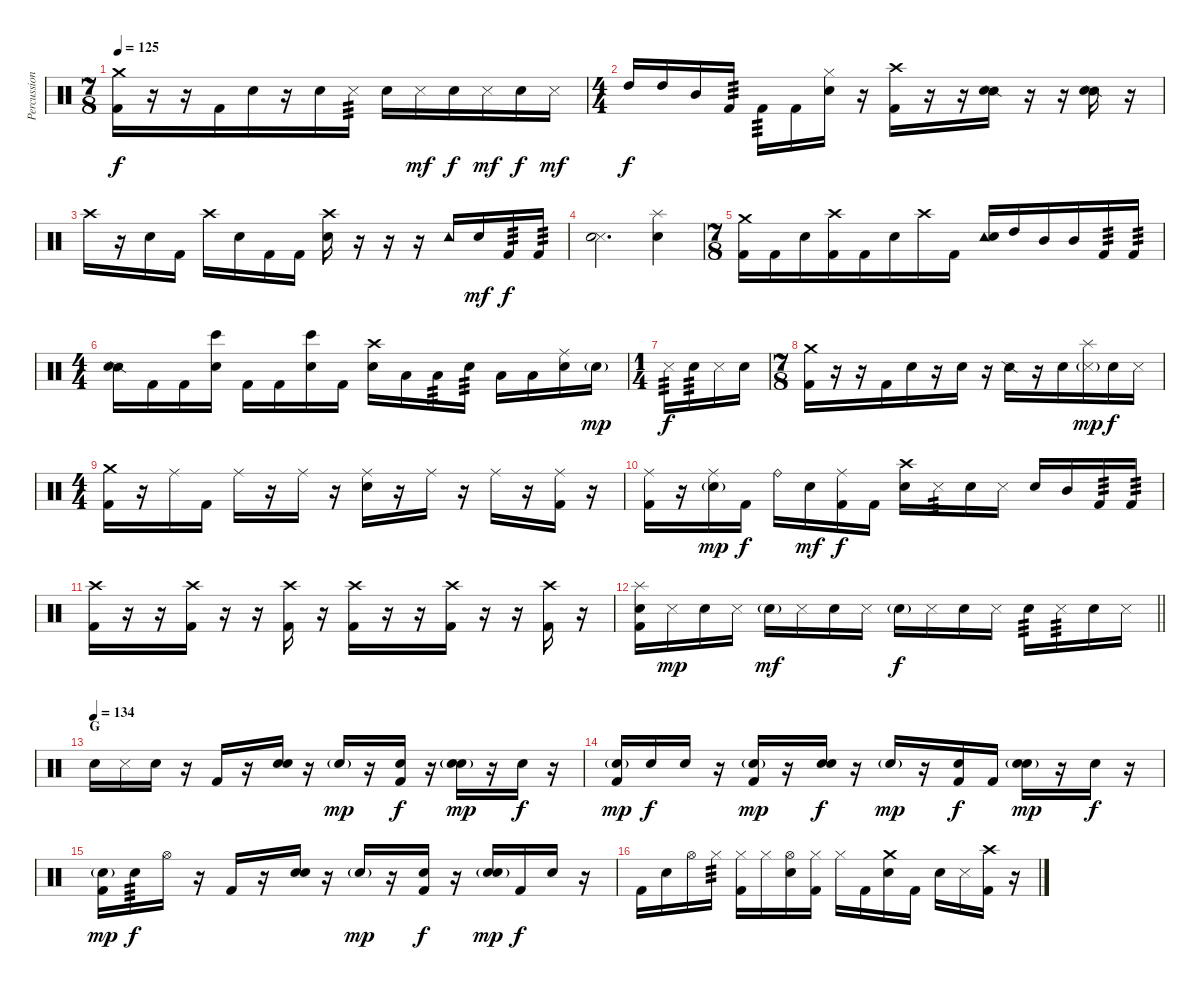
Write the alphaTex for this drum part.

\track ("Percussion" "Percussion") {instrument percussion}
\staff {score}
\articulation defaults
\ts (7 8)
\tempo 125
\clef neutral
\ks c
("Crash medium (hit)" "Kick (hit) 2").16{dy f} r.16 r.16 "Kick (hit) 2".16 "Snare (hit)".16 r.16 "Snare (hit) 2".16 "Metronome (hit)".16{tp 3} "Snare (hit) 2".16 "Metronome (hit)".16{dy mf} "Snare (hit) 2".16{dy f} "Metronome (hit)".16{dy mf} "Snare (hit) 2".16{dy f} "Metronome (hit)".16{dy mf} |
\ts (4 4)
"High Tom (hit)".16{dy f} "High Tom (hit)".16 "Mid Tom (hit)".16 "Kick (hit) 2".16{tp 3} "Kick (hit) 2".16{tp 3} "Kick (hit) 2".16 ("Hi-Hat (closed)" "Snare (hit) 2").16 r.16 ("Crash high (hit)" "Kick (hit) 2").16 r.16 r.16 ("Snare (side stick) 2" "Snare (hit) 2").16 r.16 r.16 ("Snare (side stick) 2" "Snare (hit) 2").16 r.16 |
"Crash high (hit)".16 r.16 "Snare (hit) 2".16 "Kick (hit) 2".16 "Crash high (hit)".16 "Snare (hit) 2".16 "Kick (hit) 2".16 "Kick (hit) 2".16 ("Crash high (hit)" "Snare (hit) 2").16 r.16 r.16 r.16 "Tambourine (hit)".16 "Snare (hit) 2".16{dy mf} "Kick (hit) 2".16{tp 3 dy f} "Kick (hit) 2".16{tp 3} |
("Metronome (hit)" "Snare (hit) 2").2{d bu 60} ("Splash (hit)" "Snare (hit) 2").4 |
\ts (7 8)
("Crash medium (hit)" "Kick (hit) 2").16 "Kick (hit) 2".16 "Snare (hit) 2".16 ("Crash high (hit)" "Kick (hit) 2").16 "Kick (hit) 2".16 "Snare (hit) 2".16 "Crash high (hit)".16 "Kick (hit) 2".16 ("Tambourine (hit)" "Snare (hit) 2").16 "High Tom (hit)".16 "Mid Tom (hit)".16 "Mid Tom (hit)".16 "Kick (hit) 2".16{tp 3} "Kick (hit) 2".16{tp 3} |
\ts (4 4)
("Snare (side stick) 2" "Snare (hit) 2").16 "Kick (hit) 2".16 "Kick (hit) 2".16 ("Bongo High (hit)" "Snare (hit) 2").16 "Kick (hit) 2".16 "Kick (hit) 2".16 ("Bongo High (hit)" "Snare (hit) 2").16 "Kick (hit) 2".16 ("Crash high (hit)" "Snare (hit) 2").16 "Low Tom (hit)".16 "Low Tom (hit)".16{tp 3} "Snare (hit) 2".16{tp 3} "Low Floor Tom (hit)".16 "Low Floor Tom (hit)".16 ("Ride (middle)" "Snare (hit) 2").16 "Snare (hit) 2"{g}.16{dy mp} |
\ts (1 4)
"Metronome (hit)".16{tp 3 dy f} "Snare (hit) 2".16{tp 3} "Metronome (hit)".16 "Snare (hit) 2".16 |
\ts (7 8)
("Crash medium (hit)" "Kick (hit) 2").16 r.16 r.16 "Kick (hit) 2".16 "Snare (hit)".16 r.16 "Snare (hit) 2".16 r.16 "Snare (side stick) 2".16 r.16 "Snare (hit) 2".16 ("Splash (hit)" "Metronome (hit)"{g}).16{dy mp} "Snare (hit) 2".16{dy f} "Metronome (hit)".16 |
\ts (4 4)
("Crash medium (hit)" "Kick (hit) 2").16 r.16 "Ride (middle)".16 "Kick (hit) 2".16 "Ride (middle)".16 r.16 "Ride (middle)".16 r.16 ("Ride (middle)" "Snare (hit) 2").16 r.16 "Ride (middle)".16 r.16 "Ride (middle)".16 r.16 ("Ride (middle)" "Kick (hit) 2").16 r.16 |
("Ride (middle)" "Kick (hit) 2").16 r.16 ("Ride (middle)" "Snare (hit) 2"{g}).16{dy mp} "Kick (hit) 2".16{dy f} "Ride (bell)".16 "Snare (hit) 2".16{dy mf} ("Ride (middle)" "Kick (hit) 2").16{dy f} "Kick (hit) 2".16 ("Crash high (hit)" "Snare (hit) 2").16 "Metronome (hit)".16{tp 3} "Snare (hit) 2".16 "Metronome (hit)".16 "Snare (hit) 2".16 "Mid Tom (hit)".16 "Kick (hit) 2".16{tp 3} "Kick (hit) 2".16{tp 3} |
("Crash high (hit)" "Kick (hit) 2").16 r.16 r.16 ("Crash high (hit)" "Kick (hit) 2").16 r.16 r.16 ("Crash high (hit)" "Kick (hit) 2").16 r.16 ("Crash high (hit)" "Kick (hit) 2").16 r.16 r.16 ("Crash high (hit)" "Kick (hit) 2").16 r.16 r.16 ("Crash high (hit)" "Kick (hit) 2").16 r.16 |
\barLineRight lightlight
("Splash (hit)" "Snare (hit) 2" "Kick (hit) 2").16 "Metronome (hit)".16{dy mp} "Snare (hit) 2".16 "Metronome (hit)".16 "Snare (hit) 2"{g}.16{dy mf} "Metronome (hit)".16 "Snare (hit) 2".16 "Metronome (hit)".16 "Snare (hit) 2"{g}.16{dy f} "Metronome (hit)".16 "Snare (hit) 2".16 "Metronome (hit)".16 "Snare (hit) 2".16{tp 3} "Metronome (hit)".16{tp 3} "Snare (hit) 2".16 "Metronome (hit)".16 |
\section ("" "G")
\tempo (134)
"Snare (hit) 2".16 "Metronome (hit)".16 "Snare (hit)".16 r.16 "Kick (hit) 2".16 r.16 ("Snare (hit)" "Snare (hit) 2").16 r.16 "Snare (hit)"{g}.16{dy mp} r.16 ("Snare (hit)" "Kick (hit) 2").16{dy f} r.16 ("Snare (hit)"{g} "Snare (hit) 2").16{dy mp} r.16 "Snare (hit)".16{dy f} r.16 |
("Snare (hit)"{g} "Kick (hit) 2").16{dy mp} "Snare (hit) 2".16{dy f} "Snare (hit)".16 r.16 ("Snare (hit)"{g} "Kick (hit) 2").16{dy mp} r.16 ("Snare (hit)" "Snare (hit) 2").16{dy f} r.16 "Snare (hit)"{g}.16{dy mp} r.16 ("Snare (hit)" "Kick (hit) 2").16{dy f} "Kick (hit) 2".16 ("Snare (hit)"{g} "Snare (hit) 2").16{dy mp} r.16 "Snare (hit)".16{dy f} r.16 |
("Snare (hit)"{g} "Kick (hit) 2").16{dy mp} "Snare (hit) 2".16{tp 3 dy f} "Hi-Hat (open)".16 r.16 "Kick (hit) 2".16 r.16 ("Snare (hit)" "Snare (hit) 2").16 r.16 "Snare (hit)"{g}.16{dy mp} r.16 ("Snare (hit)" "Kick (hit) 2").16{dy f} r.16 ("Snare (hit)"{g} "Snare (hit) 2").16{dy mp} "Kick (hit) 2".16{dy f} "Snare (hit)".16 r.16 |
"Kick (hit) 2".16 "Snare (hit) 2".16 "Hi-Hat (open)".16 "Hi-Hat (closed)".16{tp 3} ("Hi-Hat (closed)" "Kick (hit) 2").16 "Hi-Hat (closed)".16 ("Hi-Hat (open)" "Snare (hit) 2").16 ("Hi-Hat (closed)" "Kick (hit) 2").16 "Hi-Hat (closed)".16 "Kick (hit) 2".16 ("Crash medium (hit)" "Snare (hit) 2").16 "Kick (hit) 2".16 "Snare (hit) 2".16 "Metronome (hit)".16 ("Crash high (hit)" "Kick (hit) 2").16 r.16
